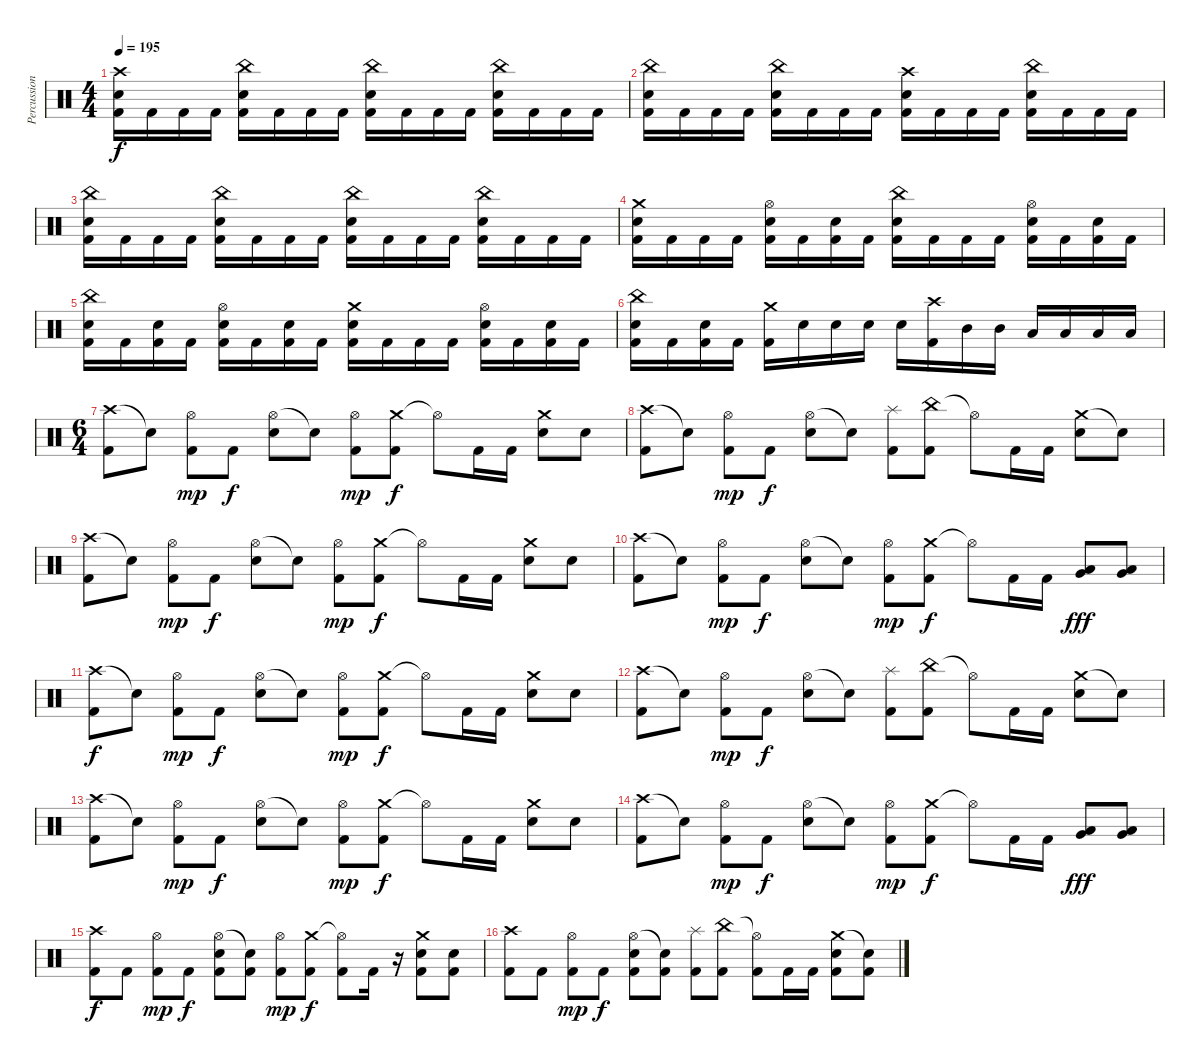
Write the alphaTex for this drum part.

\track ("Percussion" "Percussion") {instrument percussion}
\staff {score}
\articulation defaults
\ts (4 4)
\tempo 195
\clef neutral
\ks c
("Crash high (hit)" "Snare (hit) 2" "Kick (hit) 2").16{dy f} "Kick (hit) 2".16 "Kick (hit) 2".16 "Kick (hit) 2".16 ("China (hit)" "Snare (hit) 2" "Kick (hit) 2").16 "Kick (hit) 2".16 "Kick (hit) 2".16 "Kick (hit) 2".16 ("China (hit)" "Snare (hit) 2" "Kick (hit) 2").16 "Kick (hit) 2".16 "Kick (hit) 2".16 "Kick (hit) 2".16 ("China (hit)" "Snare (hit) 2" "Kick (hit) 2").16 "Kick (hit) 2".16 "Kick (hit) 2".16 "Kick (hit) 2".16 |
("China (hit)" "Snare (hit) 2" "Kick (hit) 2").16 "Kick (hit) 2".16 "Kick (hit) 2".16 "Kick (hit) 2".16 ("China (hit)" "Snare (hit) 2" "Kick (hit) 2").16 "Kick (hit) 2".16 "Kick (hit) 2".16 "Kick (hit) 2".16 ("Crash high (hit)" "Snare (hit) 2" "Kick (hit) 2").16 "Kick (hit) 2".16 "Kick (hit) 2".16 "Kick (hit) 2".16 ("China (hit)" "Snare (hit) 2" "Kick (hit) 2").16 "Kick (hit) 2".16 "Kick (hit) 2".16 "Kick (hit) 2".16 |
("China (hit)" "Snare (hit) 2" "Kick (hit) 2").16 "Kick (hit) 2".16 "Kick (hit) 2".16 "Kick (hit) 2".16 ("China (hit)" "Snare (hit) 2" "Kick (hit) 2").16 "Kick (hit) 2".16 "Kick (hit) 2".16 "Kick (hit) 2".16 ("China (hit)" "Snare (hit) 2" "Kick (hit) 2").16 "Kick (hit) 2".16 "Kick (hit) 2".16 "Kick (hit) 2".16 ("China (hit)" "Snare (hit) 2" "Kick (hit) 2").16 "Kick (hit) 2".16 "Kick (hit) 2".16 "Kick (hit) 2".16 |
("Crash medium (hit)" "Snare (hit) 2" "Kick (hit) 2").16 "Kick (hit) 2".16 "Kick (hit) 2".16 "Kick (hit) 2".16 ("Hi-Hat (open)" "Snare (hit) 2" "Kick (hit) 2").16 "Kick (hit) 2".16 ("Snare (hit) 2" "Kick (hit) 2").16 "Kick (hit) 2".16 ("China (hit)" "Snare (hit) 2" "Kick (hit) 2").16 "Kick (hit) 2".16 "Kick (hit) 2".16 "Kick (hit) 2".16 ("Hi-Hat (open)" "Snare (hit) 2" "Kick (hit) 2").16 "Kick (hit) 2".16 ("Snare (hit) 2" "Kick (hit) 2").16 "Kick (hit) 2".16 |
("China (hit)" "Snare (hit) 2" "Kick (hit) 2").16 "Kick (hit) 2".16 ("Snare (hit) 2" "Kick (hit) 2").16 "Kick (hit) 2".16 ("Hi-Hat (open)" "Snare (hit) 2" "Kick (hit) 2").16 "Kick (hit) 2".16 ("Snare (hit) 2" "Kick (hit) 2").16 "Kick (hit) 2".16 ("Crash medium (hit)" "Snare (hit) 2" "Kick (hit) 2").16 "Kick (hit) 2".16 "Kick (hit) 2".16 "Kick (hit) 2".16 ("Hi-Hat (open)" "Snare (hit) 2" "Kick (hit) 2").16 "Kick (hit) 2".16 ("Snare (hit) 2" "Kick (hit) 2").16 "Kick (hit) 2".16 |
("China (hit)" "Snare (hit) 2" "Kick (hit) 2").16 "Kick (hit) 2".16 ("Snare (hit) 2" "Kick (hit) 2").16 "Kick (hit) 2".16 ("Crash medium (hit)" "Kick (hit) 2").16 "Snare (hit) 2".16 "Snare (hit) 2".16 "Snare (hit) 2".16 "Snare (hit) 2".16 ("Crash high (hit)" "Kick (hit) 2").16 "Mid Tom (hit)".16 "Mid Tom (hit)".16 "Low Tom (hit)".16 "Low Tom (hit)".16 "Low Tom (hit)".16 "Low Tom (hit)".16 |
\ts (6 4)
("Crash high (hit)" "Kick (hit) 2").8 "Snare (hit)"{t}.8 ("Hi-Hat (open)" "Kick (hit) 2").8{dy mp} "Kick (hit) 2".8{dy f} ("Hi-Hat (open)" "Snare (hit) 2").8 "Snare (hit)"{t}.8 ("Hi-Hat (open)" "Kick (hit) 2").8{dy mp} ("Crash medium (hit)" "Kick (hit) 2").8{dy f} "Hi-Hat (open)"{t}.8 "Kick (hit) 2".16 "Kick (hit) 2".16 ("Crash medium (hit)" "Snare (hit) 2").8 "Snare (hit) 2".8 |
("Crash high (hit)" "Kick (hit) 2").8 "Snare (hit)"{t}.8 ("Hi-Hat (open)" "Kick (hit) 2").8{dy mp} "Kick (hit) 2".8{dy f} ("Hi-Hat (open)" "Snare (hit) 2").8 "Snare (hit)"{t}.8 ("Splash (hit)" "Kick (hit) 2").8 ("China (hit)" "Kick (hit) 2").8 "Hi-Hat (open)"{t}.8 "Kick (hit) 2".16 "Kick (hit) 2".16 ("Crash medium (hit)" "Snare (hit) 2").8 "Snare (hit) 2"{t}.8 |
("Crash high (hit)" "Kick (hit) 2").8 "Snare (hit)"{t}.8 ("Hi-Hat (open)" "Kick (hit) 2").8{dy mp} "Kick (hit) 2".8{dy f} ("Hi-Hat (open)" "Snare (hit) 2").8 "Snare (hit)"{t}.8 ("Hi-Hat (open)" "Kick (hit) 2").8{dy mp} ("Crash medium (hit)" "Kick (hit) 2").8{dy f} "Hi-Hat (open)"{t}.8 "Kick (hit) 2".16 "Kick (hit) 2".16 ("Crash medium (hit)" "Snare (hit) 2").8 "Snare (hit) 2".8 |
("Crash high (hit)" "Kick (hit) 2").8 "Snare (hit)"{t}.8 ("Hi-Hat (open)" "Kick (hit) 2").8{dy mp} "Kick (hit) 2".8{dy f} ("Hi-Hat (open)" "Snare (hit) 2").8 "Snare (hit)"{t}.8 ("Hi-Hat (open)" "Kick (hit) 2").8{dy mp} ("Crash medium (hit)" "Kick (hit) 2").8{dy f} "Hi-Hat (open)"{t}.8 "Kick (hit) 2".16 "Kick (hit) 2".16 ("Very Low Tom (hit)" "Low Floor Tom (hit)").8{dy fff} ("Very Low Tom (hit)" "Low Floor Tom (hit)").8 |
("Crash high (hit)" "Kick (hit) 2").8{dy f} "Snare (hit)"{t}.8 ("Hi-Hat (open)" "Kick (hit) 2").8{dy mp} "Kick (hit) 2".8{dy f} ("Hi-Hat (open)" "Snare (hit) 2").8 "Snare (hit)"{t}.8 ("Hi-Hat (open)" "Kick (hit) 2").8{dy mp} ("Crash medium (hit)" "Kick (hit) 2").8{dy f} "Hi-Hat (open)"{t}.8 "Kick (hit) 2".16 "Kick (hit) 2".16 ("Crash medium (hit)" "Snare (hit) 2").8 "Snare (hit) 2".8 |
("Crash high (hit)" "Kick (hit) 2").8 "Snare (hit)"{t}.8 ("Hi-Hat (open)" "Kick (hit) 2").8{dy mp} "Kick (hit) 2".8{dy f} ("Hi-Hat (open)" "Snare (hit) 2").8 "Snare (hit)"{t}.8 ("Splash (hit)" "Kick (hit) 2").8 ("China (hit)" "Kick (hit) 2").8 "Hi-Hat (open)"{t}.8 "Kick (hit) 2".16 "Kick (hit) 2".16 ("Crash medium (hit)" "Snare (hit) 2").8 "Snare (hit) 2"{t}.8 |
("Crash high (hit)" "Kick (hit) 2").8 "Snare (hit)"{t}.8 ("Hi-Hat (open)" "Kick (hit) 2").8{dy mp} "Kick (hit) 2".8{dy f} ("Hi-Hat (open)" "Snare (hit) 2").8 "Snare (hit)"{t}.8 ("Hi-Hat (open)" "Kick (hit) 2").8{dy mp} ("Crash medium (hit)" "Kick (hit) 2").8{dy f} "Hi-Hat (open)"{t}.8 "Kick (hit) 2".16 "Kick (hit) 2".16 ("Crash medium (hit)" "Snare (hit) 2").8 "Snare (hit) 2".8 |
("Crash high (hit)" "Kick (hit) 2").8 "Snare (hit)"{t}.8 ("Hi-Hat (open)" "Kick (hit) 2").8{dy mp} "Kick (hit) 2".8{dy f} ("Hi-Hat (open)" "Snare (hit) 2").8 "Snare (hit)"{t}.8 ("Hi-Hat (open)" "Kick (hit) 2").8{dy mp} ("Crash medium (hit)" "Kick (hit) 2").8{dy f} "Hi-Hat (open)"{t}.8 "Kick (hit) 2".16 "Kick (hit) 2".16 ("Very Low Tom (hit)" "Low Floor Tom (hit)").8{dy fff} ("Very Low Tom (hit)" "Low Floor Tom (hit)").8 |
("Crash high (hit)" "Kick (hit) 2").8{dy f} "Kick (hit) 2".8 ("Hi-Hat (open)" "Kick (hit) 2").8{dy mp} "Kick (hit) 2".8{dy f} ("Hi-Hat (open)" "Snare (hit) 2" "Kick (hit) 2").8 ("Snare (hit)"{t} "Kick (hit) 2").8 ("Hi-Hat (open)" "Kick (hit) 2").8{dy mp} ("Crash medium (hit)" "Kick (hit) 2").8{dy f} ("Hi-Hat (open)"{t} "Kick (hit) 2").8 "Kick (hit) 2".16 r.16 ("Crash medium (hit)" "Snare (hit) 2" "Kick (hit) 2").8 ("Snare (hit) 2" "Kick (hit) 2").8 |
("Crash high (hit)" "Kick (hit) 2").8 "Kick (hit) 2".8 ("Hi-Hat (open)" "Kick (hit) 2").8{dy mp} "Kick (hit) 2".8{dy f} ("Hi-Hat (open)" "Snare (hit) 2" "Kick (hit) 2").8 ("Snare (hit)"{t} "Kick (hit) 2").8 ("Splash (hit)" "Kick (hit) 2").8 ("China (hit)" "Kick (hit) 2").8 ("Hi-Hat (open)"{t} "Kick (hit) 2").8 "Kick (hit) 2".16 "Kick (hit) 2".16 ("Crash medium (hit)" "Snare (hit) 2" "Kick (hit) 2").8 ("Snare (hit) 2"{t} "Kick (hit) 2").8
